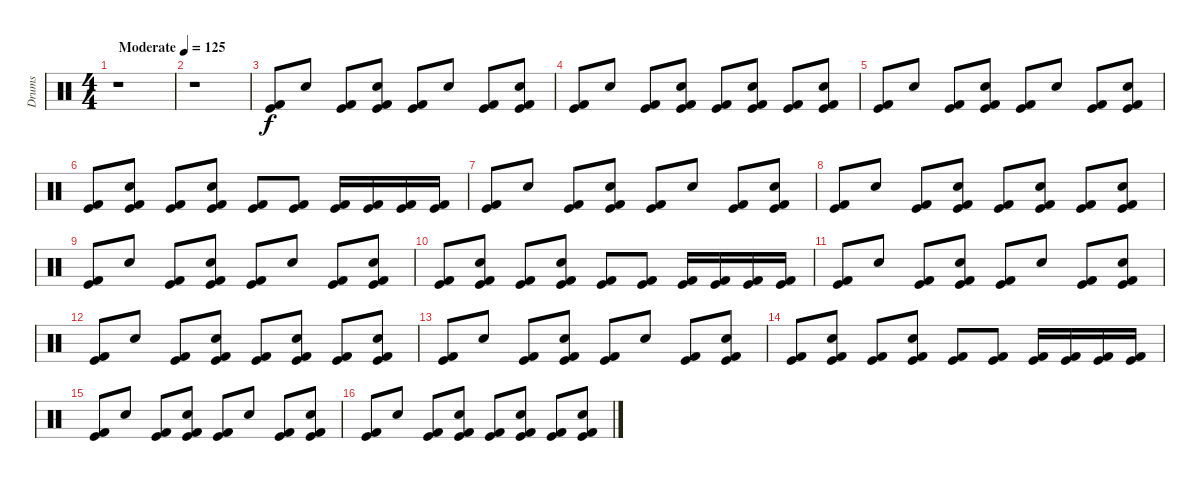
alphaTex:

\track ("Drums" "Drums") {instrument percussion}
\staff {score}
\articulation defaults
\ts (4 4)
\tempo (125 "Moderate")
\clef neutral
\ks c
r.1{dy f} |
r.1 |
("Kick (hit)" "Kick (hit) 2").8 "Snare (hit) 2".8 ("Kick (hit)" "Kick (hit) 2").8 ("Snare (hit) 2" "Kick (hit)" "Kick (hit) 2").8 ("Kick (hit)" "Kick (hit) 2").8 "Snare (hit) 2".8 ("Kick (hit)" "Kick (hit) 2").8 ("Snare (hit) 2" "Kick (hit)" "Kick (hit) 2").8 |
("Kick (hit)" "Kick (hit) 2").8 "Snare (hit) 2".8 ("Kick (hit)" "Kick (hit) 2").8 ("Snare (hit) 2" "Kick (hit)" "Kick (hit) 2").8 ("Kick (hit)" "Kick (hit) 2").8 ("Snare (hit) 2" "Kick (hit)" "Kick (hit) 2").8 ("Kick (hit)" "Kick (hit) 2").8 ("Snare (hit) 2" "Kick (hit)" "Kick (hit) 2").8 |
("Kick (hit)" "Kick (hit) 2").8 "Snare (hit) 2".8 ("Kick (hit)" "Kick (hit) 2").8 ("Snare (hit) 2" "Kick (hit)" "Kick (hit) 2").8 ("Kick (hit)" "Kick (hit) 2").8 "Snare (hit) 2".8 ("Kick (hit)" "Kick (hit) 2").8 ("Snare (hit) 2" "Kick (hit)" "Kick (hit) 2").8 |
("Kick (hit)" "Kick (hit) 2").8 ("Snare (hit) 2" "Kick (hit)" "Kick (hit) 2").8 ("Kick (hit)" "Kick (hit) 2").8 ("Snare (hit) 2" "Kick (hit)" "Kick (hit) 2").8 ("Kick (hit)" "Kick (hit) 2").8 ("Kick (hit)" "Kick (hit) 2").8 ("Kick (hit)" "Kick (hit) 2").16 ("Kick (hit)" "Kick (hit) 2").16 ("Kick (hit)" "Kick (hit) 2").16 ("Kick (hit)" "Kick (hit) 2").16 |
("Kick (hit)" "Kick (hit) 2").8 "Snare (hit) 2".8 ("Kick (hit)" "Kick (hit) 2").8 ("Snare (hit) 2" "Kick (hit)" "Kick (hit) 2").8 ("Kick (hit)" "Kick (hit) 2").8 "Snare (hit) 2".8 ("Kick (hit)" "Kick (hit) 2").8 ("Snare (hit) 2" "Kick (hit)" "Kick (hit) 2").8 |
("Kick (hit)" "Kick (hit) 2").8 "Snare (hit) 2".8 ("Kick (hit)" "Kick (hit) 2").8 ("Snare (hit) 2" "Kick (hit)" "Kick (hit) 2").8 ("Kick (hit)" "Kick (hit) 2").8 ("Snare (hit) 2" "Kick (hit)" "Kick (hit) 2").8 ("Kick (hit)" "Kick (hit) 2").8 ("Snare (hit) 2" "Kick (hit)" "Kick (hit) 2").8 |
("Kick (hit)" "Kick (hit) 2").8 "Snare (hit) 2".8 ("Kick (hit)" "Kick (hit) 2").8 ("Snare (hit) 2" "Kick (hit)" "Kick (hit) 2").8 ("Kick (hit)" "Kick (hit) 2").8 "Snare (hit) 2".8 ("Kick (hit)" "Kick (hit) 2").8 ("Snare (hit) 2" "Kick (hit)" "Kick (hit) 2").8 |
("Kick (hit)" "Kick (hit) 2").8 ("Snare (hit) 2" "Kick (hit)" "Kick (hit) 2").8 ("Kick (hit)" "Kick (hit) 2").8 ("Snare (hit) 2" "Kick (hit)" "Kick (hit) 2").8 ("Kick (hit)" "Kick (hit) 2").8 ("Kick (hit)" "Kick (hit) 2").8 ("Kick (hit)" "Kick (hit) 2").16 ("Kick (hit)" "Kick (hit) 2").16 ("Kick (hit)" "Kick (hit) 2").16 ("Kick (hit)" "Kick (hit) 2").16 |
("Kick (hit)" "Kick (hit) 2").8 "Snare (hit) 2".8 ("Kick (hit)" "Kick (hit) 2").8 ("Snare (hit) 2" "Kick (hit)" "Kick (hit) 2").8 ("Kick (hit)" "Kick (hit) 2").8 "Snare (hit) 2".8 ("Kick (hit)" "Kick (hit) 2").8 ("Snare (hit) 2" "Kick (hit)" "Kick (hit) 2").8 |
("Kick (hit)" "Kick (hit) 2").8 "Snare (hit) 2".8 ("Kick (hit)" "Kick (hit) 2").8 ("Snare (hit) 2" "Kick (hit)" "Kick (hit) 2").8 ("Kick (hit)" "Kick (hit) 2").8 ("Snare (hit) 2" "Kick (hit)" "Kick (hit) 2").8 ("Kick (hit)" "Kick (hit) 2").8 ("Snare (hit) 2" "Kick (hit)" "Kick (hit) 2").8 |
("Kick (hit)" "Kick (hit) 2").8 "Snare (hit) 2".8 ("Kick (hit)" "Kick (hit) 2").8 ("Snare (hit) 2" "Kick (hit)" "Kick (hit) 2").8 ("Kick (hit)" "Kick (hit) 2").8 "Snare (hit) 2".8 ("Kick (hit)" "Kick (hit) 2").8 ("Snare (hit) 2" "Kick (hit)" "Kick (hit) 2").8 |
("Kick (hit)" "Kick (hit) 2").8 ("Snare (hit) 2" "Kick (hit)" "Kick (hit) 2").8 ("Kick (hit)" "Kick (hit) 2").8 ("Snare (hit) 2" "Kick (hit)" "Kick (hit) 2").8 ("Kick (hit)" "Kick (hit) 2").8 ("Kick (hit)" "Kick (hit) 2").8 ("Kick (hit)" "Kick (hit) 2").16 ("Kick (hit)" "Kick (hit) 2").16 ("Kick (hit)" "Kick (hit) 2").16 ("Kick (hit)" "Kick (hit) 2").16 |
("Kick (hit)" "Kick (hit) 2").8 "Snare (hit) 2".8 ("Kick (hit)" "Kick (hit) 2").8 ("Snare (hit) 2" "Kick (hit)" "Kick (hit) 2").8 ("Kick (hit)" "Kick (hit) 2").8 "Snare (hit) 2".8 ("Kick (hit)" "Kick (hit) 2").8 ("Snare (hit) 2" "Kick (hit)" "Kick (hit) 2").8 |
("Kick (hit)" "Kick (hit) 2").8 "Snare (hit) 2".8 ("Kick (hit)" "Kick (hit) 2").8 ("Snare (hit) 2" "Kick (hit)" "Kick (hit) 2").8 ("Kick (hit)" "Kick (hit) 2").8 ("Snare (hit) 2" "Kick (hit)" "Kick (hit) 2").8 ("Kick (hit)" "Kick (hit) 2").8 ("Snare (hit) 2" "Kick (hit)" "Kick (hit) 2").8
